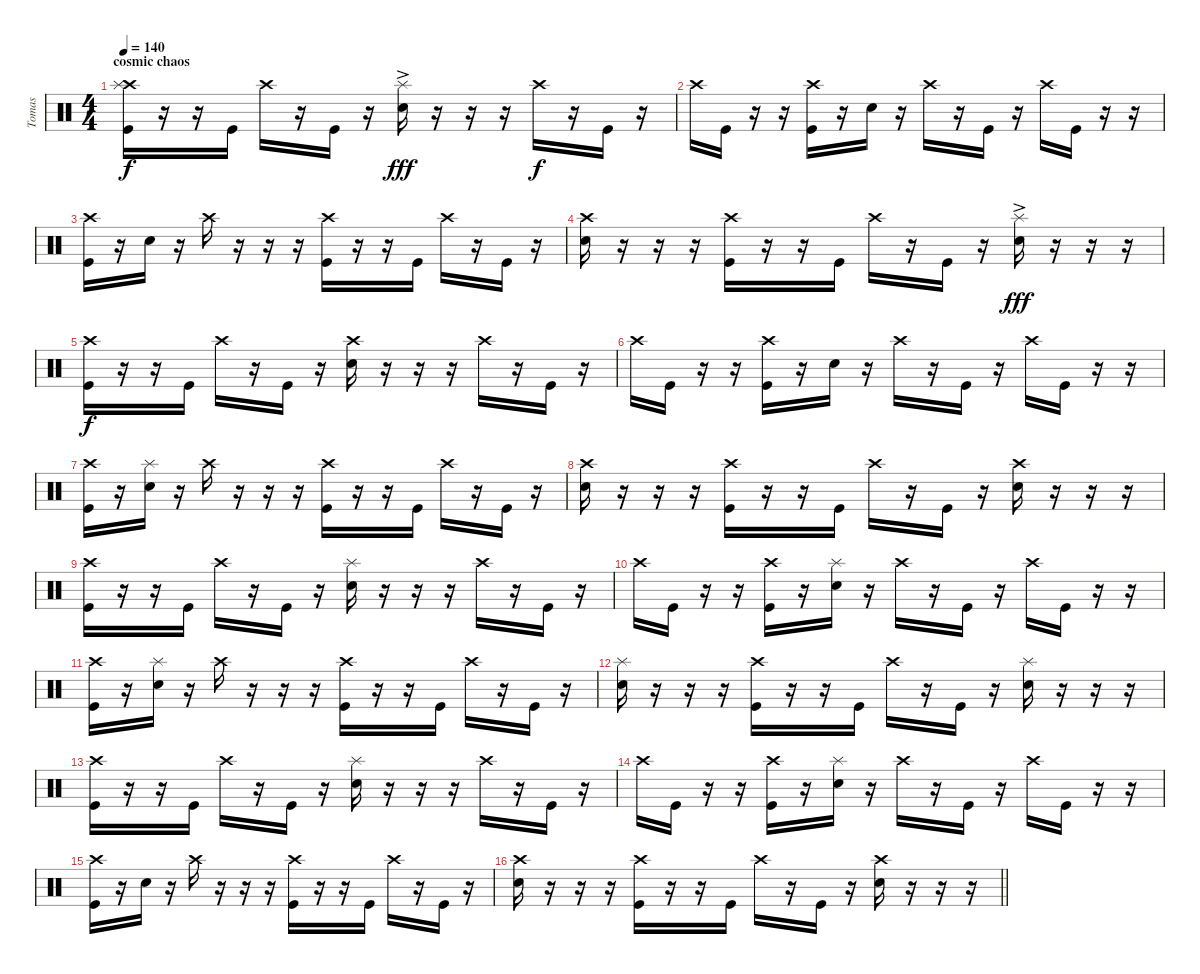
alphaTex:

\track ("Tomas" "Tomas") {instrument percussion}
\staff {score}
\articulation defaults
\ts (4 4)
\section ("" "cosmic chaos")
\tempo 140
\clef neutral
\ks c
("Crash high (hit)" "Splash (hit)" "Kick (hit)").16{dy f} r.16 r.16 "Kick (hit)".16 "Crash high (hit)".16 r.16 "Kick (hit)".16 r.16 ("Splash (hit)"{ac} "Electric Snare (hit)").16{dy fff} r.16 r.16 r.16 "Crash high (hit)".16{dy f} r.16 "Kick (hit)".16 r.16 |
"Crash high (hit)".16 "Kick (hit)".16 r.16 r.16 ("Crash high (hit)" "Kick (hit)").16 r.16 "Electric Snare (hit)".16 r.16 "Crash high (hit)".16 r.16 "Kick (hit)".16 r.16 "Crash high (hit)".16 "Kick (hit)".16 r.16 r.16 |
("Crash high (hit)" "Kick (hit)").16 r.16 "Electric Snare (hit)".16 r.16 "Crash high (hit)".16 r.16 r.16 r.16 ("Crash high (hit)" "Kick (hit)").16 r.16 r.16 "Kick (hit)".16 "Crash high (hit)".16 r.16 "Kick (hit)".16 r.16 |
("Crash high (hit)" "Electric Snare (hit)").16 r.16 r.16 r.16 ("Crash high (hit)" "Kick (hit)").16 r.16 r.16 "Kick (hit)".16 "Crash high (hit)".16 r.16 "Kick (hit)".16 r.16 ("Splash (hit)"{ac} "Electric Snare (hit)").16{dy fff} r.16 r.16 r.16 |
("Crash high (hit)" "Kick (hit)").16{dy f} r.16 r.16 "Kick (hit)".16 "Crash high (hit)".16 r.16 "Kick (hit)".16 r.16 ("Crash high (hit)" "Electric Snare (hit)").16 r.16 r.16 r.16 "Crash high (hit)".16 r.16 "Kick (hit)".16 r.16 |
"Crash high (hit)".16 "Kick (hit)".16 r.16 r.16 ("Crash high (hit)" "Kick (hit)").16 r.16 "Electric Snare (hit)".16 r.16 "Crash high (hit)".16 r.16 "Kick (hit)".16 r.16 "Crash high (hit)".16 "Kick (hit)".16 r.16 r.16 |
("Crash high (hit)" "Kick (hit)").16 r.16 ("Splash (hit)" "Electric Snare (hit)").16 r.16 "Crash high (hit)".16 r.16 r.16 r.16 ("Crash high (hit)" "Kick (hit)").16 r.16 r.16 "Kick (hit)".16 "Crash high (hit)".16 r.16 "Kick (hit)".16 r.16 |
("Crash high (hit)" "Electric Snare (hit)").16 r.16 r.16 r.16 ("Crash high (hit)" "Kick (hit)").16 r.16 r.16 "Kick (hit)".16 "Crash high (hit)".16 r.16 "Kick (hit)".16 r.16 ("Crash high (hit)" "Electric Snare (hit)").16 r.16 r.16 r.16 |
("Crash high (hit)" "Kick (hit)").16 r.16 r.16 "Kick (hit)".16 "Crash high (hit)".16 r.16 "Kick (hit)".16 r.16 ("Splash (hit)" "Electric Snare (hit)").16 r.16 r.16 r.16 "Crash high (hit)".16 r.16 "Kick (hit)".16 r.16 |
"Crash high (hit)".16 "Kick (hit)".16 r.16 r.16 ("Crash high (hit)" "Kick (hit)").16 r.16 ("Splash (hit)" "Electric Snare (hit)").16 r.16 "Crash high (hit)".16 r.16 "Kick (hit)".16 r.16 "Crash high (hit)".16 "Kick (hit)".16 r.16 r.16 |
("Crash high (hit)" "Kick (hit)").16 r.16 ("Splash (hit)" "Electric Snare (hit)").16 r.16 "Crash high (hit)".16 r.16 r.16 r.16 ("Crash high (hit)" "Kick (hit)").16 r.16 r.16 "Kick (hit)".16 "Crash high (hit)".16 r.16 "Kick (hit)".16 r.16 |
("Splash (hit)" "Electric Snare (hit)").16 r.16 r.16 r.16 ("Crash high (hit)" "Kick (hit)").16 r.16 r.16 "Kick (hit)".16 "Crash high (hit)".16 r.16 "Kick (hit)".16 r.16 ("Splash (hit)" "Electric Snare (hit)").16 r.16 r.16 r.16 |
("Crash high (hit)" "Kick (hit)").16 r.16 r.16 "Kick (hit)".16 "Crash high (hit)".16 r.16 "Kick (hit)".16 r.16 ("Splash (hit)" "Electric Snare (hit)").16 r.16 r.16 r.16 "Crash high (hit)".16 r.16 "Kick (hit)".16 r.16 |
"Crash high (hit)".16 "Kick (hit)".16 r.16 r.16 ("Crash high (hit)" "Kick (hit)").16 r.16 ("Splash (hit)" "Electric Snare (hit)").16 r.16 "Crash high (hit)".16 r.16 "Kick (hit)".16 r.16 "Crash high (hit)".16 "Kick (hit)".16 r.16 r.16 |
("Crash high (hit)" "Kick (hit)").16 r.16 "Electric Snare (hit)".16 r.16 "Crash high (hit)".16 r.16 r.16 r.16 ("Crash high (hit)" "Kick (hit)").16 r.16 r.16 "Kick (hit)".16 "Crash high (hit)".16 r.16 "Kick (hit)".16 r.16 |
\barLineRight lightlight
("Crash high (hit)" "Electric Snare (hit)").16 r.16 r.16 r.16 ("Crash high (hit)" "Kick (hit)").16 r.16 r.16 "Kick (hit)".16 "Crash high (hit)".16 r.16 "Kick (hit)".16 r.16 ("Crash high (hit)" "Electric Snare (hit)").16 r.16 r.16 r.16
